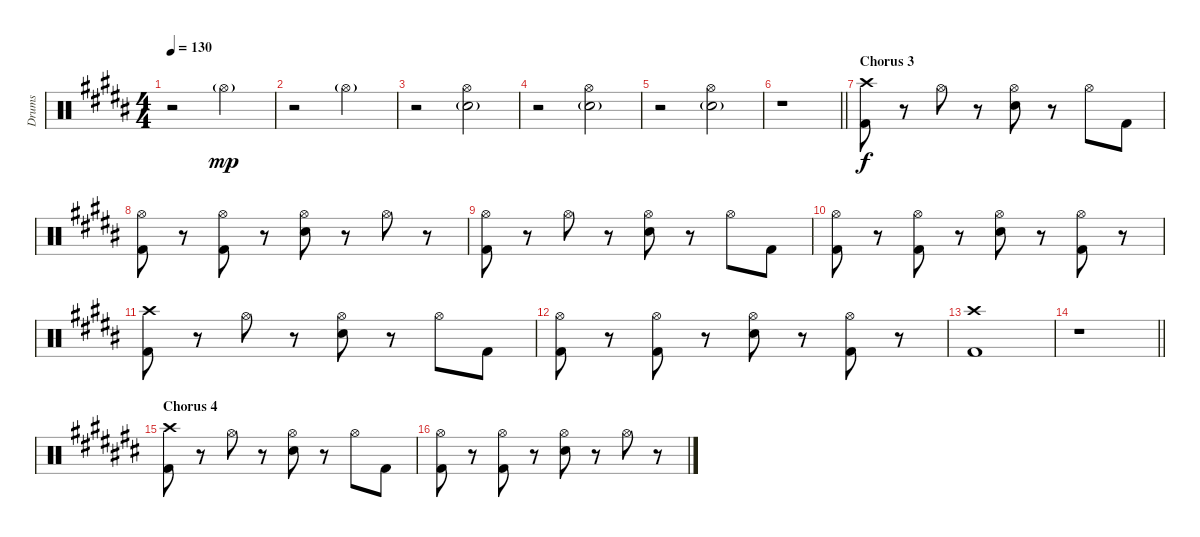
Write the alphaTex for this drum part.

\track ("Drums" "Drums") {instrument percussion}
\staff {score}
\articulation defaults
\ts (4 4)
\tempo 130
\clef neutral
\ks b
r.2{dy mp} "Hi-Hat (open)"{g}.2 |
r.2 "Hi-Hat (open)"{g}.2 |
r.2 ("Hi-Hat (open)" "Electric Snare (hit)"{g}).2 |
r.2 ("Hi-Hat (open)" "Electric Snare (hit)"{g}).2 |
r.2 ("Hi-Hat (open)" "Electric Snare (hit)"{g}).2 |
\barLineRight lightlight
r.1 |
\section ("" "Chorus 3")
("Crash high (hit)" "Kick (hit) 2").8{dy f} r.8 "Hi-Hat (open)".8 r.8 ("Hi-Hat (open)" "Electric Snare (hit)").8 r.8 "Hi-Hat (open)".8 "Kick (hit) 2".8 |
("Hi-Hat (open)" "Kick (hit) 2").8 r.8 ("Hi-Hat (open)" "Kick (hit) 2").8 r.8 ("Hi-Hat (open)" "Electric Snare (hit)").8 r.8 "Hi-Hat (open)".8 r.8 |
("Hi-Hat (open)" "Kick (hit) 2").8 r.8 "Hi-Hat (open)".8 r.8 ("Hi-Hat (open)" "Electric Snare (hit)").8 r.8 "Hi-Hat (open)".8 "Kick (hit) 2".8 |
("Hi-Hat (open)" "Kick (hit) 2").8 r.8 ("Hi-Hat (open)" "Kick (hit) 2").8 r.8 ("Hi-Hat (open)" "Electric Snare (hit)").8 r.8 ("Hi-Hat (open)" "Kick (hit) 2").8 r.8 |
("Crash high (hit)" "Kick (hit) 2").8 r.8 "Hi-Hat (open)".8 r.8 ("Hi-Hat (open)" "Electric Snare (hit)").8 r.8 "Hi-Hat (open)".8 "Kick (hit) 2".8 |
("Hi-Hat (open)" "Kick (hit) 2").8 r.8 ("Hi-Hat (open)" "Kick (hit) 2").8 r.8 ("Hi-Hat (open)" "Electric Snare (hit)").8 r.8 ("Hi-Hat (open)" "Kick (hit) 2").8 r.8 |
("Crash high (hit)" "Kick (hit) 2").1 |
\barLineRight lightlight
r.1 |
\section ("" "Chorus 4")
\ks c#
("Crash high (hit)" "Kick (hit) 2").8 r.8 "Hi-Hat (open)".8 r.8 ("Hi-Hat (open)" "Electric Snare (hit)").8 r.8 "Hi-Hat (open)".8 "Kick (hit) 2".8 |
("Hi-Hat (open)" "Kick (hit) 2").8 r.8 ("Hi-Hat (open)" "Kick (hit) 2").8 r.8 ("Hi-Hat (open)" "Electric Snare (hit)").8 r.8 "Hi-Hat (open)".8 r.8
